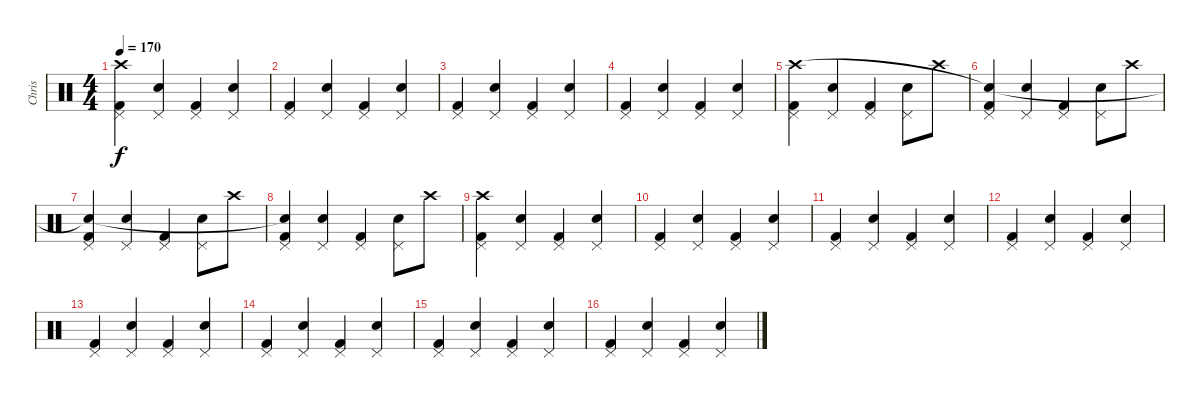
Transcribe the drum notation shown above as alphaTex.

\track ("Chris" "Chris") {instrument percussion}
\staff {score}
\articulation defaults
\ts (4 4)
\tempo 170
\clef neutral
\ks c
("Pedal Hi-Hat (hit)" "Kick (hit) 2" "Crash high (hit)").4{dy f} ("Pedal Hi-Hat (hit)" "Electric Snare (hit)").4 ("Pedal Hi-Hat (hit)" "Kick (hit) 2").4 ("Pedal Hi-Hat (hit)" "Electric Snare (hit)").4 |
("Pedal Hi-Hat (hit)" "Kick (hit) 2").4 ("Pedal Hi-Hat (hit)" "Electric Snare (hit)").4 ("Pedal Hi-Hat (hit)" "Kick (hit) 2").4 ("Pedal Hi-Hat (hit)" "Electric Snare (hit)").4 |
("Pedal Hi-Hat (hit)" "Kick (hit) 2").4 ("Pedal Hi-Hat (hit)" "Electric Snare (hit)").4 ("Pedal Hi-Hat (hit)" "Kick (hit) 2").4 ("Pedal Hi-Hat (hit)" "Electric Snare (hit)").4 |
("Pedal Hi-Hat (hit)" "Kick (hit) 2").4 ("Pedal Hi-Hat (hit)" "Electric Snare (hit)").4 ("Pedal Hi-Hat (hit)" "Kick (hit) 2").4 ("Pedal Hi-Hat (hit)" "Electric Snare (hit)").4 |
("Pedal Hi-Hat (hit)" "Kick (hit) 2" "Crash high (hit)").4 ("Pedal Hi-Hat (hit)" "Electric Snare (hit)").4 ("Pedal Hi-Hat (hit)" "Kick (hit) 2").4 ("Pedal Hi-Hat (hit)" "Electric Snare (hit)").8 "Crash high (hit)".8 |
("Pedal Hi-Hat (hit)" "Kick (hit) 2" "Snare (hit)"{t}).4 ("Pedal Hi-Hat (hit)" "Electric Snare (hit)").4 ("Pedal Hi-Hat (hit)" "Kick (hit) 2").4 ("Pedal Hi-Hat (hit)" "Electric Snare (hit)").8 "Crash high (hit)".8 |
("Pedal Hi-Hat (hit)" "Kick (hit) 2" "Snare (hit)"{t}).4 ("Pedal Hi-Hat (hit)" "Electric Snare (hit)").4 ("Pedal Hi-Hat (hit)" "Kick (hit) 2").4 ("Pedal Hi-Hat (hit)" "Electric Snare (hit)").8 "Crash high (hit)".8 |
("Pedal Hi-Hat (hit)" "Kick (hit) 2" "Snare (hit)"{t}).4 ("Pedal Hi-Hat (hit)" "Electric Snare (hit)").4 ("Pedal Hi-Hat (hit)" "Kick (hit) 2").4 ("Pedal Hi-Hat (hit)" "Electric Snare (hit)").8 "Crash high (hit)".8 |
("Pedal Hi-Hat (hit)" "Kick (hit) 2" "Crash high (hit)").4 ("Pedal Hi-Hat (hit)" "Electric Snare (hit)").4 ("Pedal Hi-Hat (hit)" "Kick (hit) 2").4 ("Pedal Hi-Hat (hit)" "Electric Snare (hit)").4 |
("Pedal Hi-Hat (hit)" "Kick (hit) 2").4 ("Pedal Hi-Hat (hit)" "Electric Snare (hit)").4 ("Pedal Hi-Hat (hit)" "Kick (hit) 2").4 ("Pedal Hi-Hat (hit)" "Electric Snare (hit)").4 |
("Pedal Hi-Hat (hit)" "Kick (hit) 2").4 ("Pedal Hi-Hat (hit)" "Electric Snare (hit)").4 ("Pedal Hi-Hat (hit)" "Kick (hit) 2").4 ("Pedal Hi-Hat (hit)" "Electric Snare (hit)").4 |
("Pedal Hi-Hat (hit)" "Kick (hit) 2").4 ("Pedal Hi-Hat (hit)" "Electric Snare (hit)").4 ("Pedal Hi-Hat (hit)" "Kick (hit) 2").4 ("Pedal Hi-Hat (hit)" "Electric Snare (hit)").4 |
("Pedal Hi-Hat (hit)" "Kick (hit) 2").4 ("Pedal Hi-Hat (hit)" "Electric Snare (hit)").4 ("Pedal Hi-Hat (hit)" "Kick (hit) 2").4 ("Pedal Hi-Hat (hit)" "Electric Snare (hit)").4 |
("Pedal Hi-Hat (hit)" "Kick (hit) 2").4 ("Pedal Hi-Hat (hit)" "Electric Snare (hit)").4 ("Pedal Hi-Hat (hit)" "Kick (hit) 2").4 ("Pedal Hi-Hat (hit)" "Electric Snare (hit)").4 |
("Pedal Hi-Hat (hit)" "Kick (hit) 2").4 ("Pedal Hi-Hat (hit)" "Electric Snare (hit)").4 ("Pedal Hi-Hat (hit)" "Kick (hit) 2").4 ("Pedal Hi-Hat (hit)" "Electric Snare (hit)").4 |
("Pedal Hi-Hat (hit)" "Kick (hit) 2").4 ("Pedal Hi-Hat (hit)" "Electric Snare (hit)").4 ("Pedal Hi-Hat (hit)" "Kick (hit) 2").4 ("Pedal Hi-Hat (hit)" "Electric Snare (hit)").4
